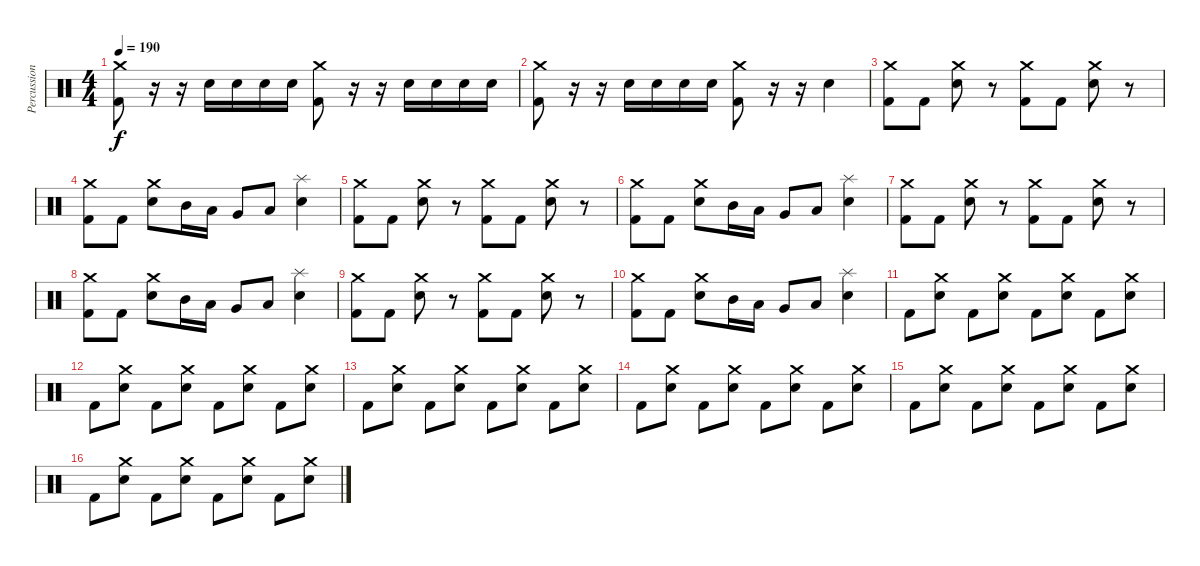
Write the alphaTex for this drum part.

\track ("Percussion" "Percussion") {instrument percussion}
\staff {score}
\articulation defaults
\ts (4 4)
\tempo 190
\clef neutral
\ks c
("Crash medium (hit)" "Kick (hit) 2").8{dy f} r.16 r.16 "Electric Snare (hit)".16 "Electric Snare (hit)".16 "Electric Snare (hit)".16 "Electric Snare (hit)".16 ("Crash medium (hit)" "Kick (hit) 2").8 r.16 r.16 "Electric Snare (hit)".16 "Electric Snare (hit)".16 "Electric Snare (hit)".16 "Electric Snare (hit)".16 |
("Crash medium (hit)" "Kick (hit) 2").8 r.16 r.16 "Electric Snare (hit)".16 "Electric Snare (hit)".16 "Electric Snare (hit)".16 "Electric Snare (hit)".16 ("Crash medium (hit)" "Kick (hit) 2").8 r.16 r.16 "Electric Snare (hit)".4 |
("Crash medium (hit)" "Kick (hit) 2").8 "Kick (hit) 2".8 ("Crash medium (hit)" "Electric Snare (hit)").8 r.8 ("Crash medium (hit)" "Kick (hit) 2").8 "Kick (hit) 2".8 ("Crash medium (hit)" "Electric Snare (hit)").8 r.8 |
("Crash medium (hit)" "Kick (hit) 2").8 "Kick (hit) 2".8 ("Crash medium (hit)" "Electric Snare (hit)").8 "Mid Tom (hit)".16 "Low Tom (hit)".16 "Very Low Tom (hit)".8 "Low Floor Tom (hit)".8 ("Splash (hit)" "Electric Snare (hit)").4 |
("Crash medium (hit)" "Kick (hit) 2").8 "Kick (hit) 2".8 ("Crash medium (hit)" "Electric Snare (hit)").8 r.8 ("Crash medium (hit)" "Kick (hit) 2").8 "Kick (hit) 2".8 ("Crash medium (hit)" "Electric Snare (hit)").8 r.8 |
("Crash medium (hit)" "Kick (hit) 2").8 "Kick (hit) 2".8 ("Crash medium (hit)" "Electric Snare (hit)").8 "Mid Tom (hit)".16 "Low Tom (hit)".16 "Very Low Tom (hit)".8 "Low Floor Tom (hit)".8 ("Splash (hit)" "Electric Snare (hit)").4 |
("Crash medium (hit)" "Kick (hit) 2").8 "Kick (hit) 2".8 ("Crash medium (hit)" "Electric Snare (hit)").8 r.8 ("Crash medium (hit)" "Kick (hit) 2").8 "Kick (hit) 2".8 ("Crash medium (hit)" "Electric Snare (hit)").8 r.8 |
("Crash medium (hit)" "Kick (hit) 2").8 "Kick (hit) 2".8 ("Crash medium (hit)" "Electric Snare (hit)").8 "Mid Tom (hit)".16 "Low Tom (hit)".16 "Very Low Tom (hit)".8 "Low Floor Tom (hit)".8 ("Splash (hit)" "Electric Snare (hit)").4 |
("Crash medium (hit)" "Kick (hit) 2").8 "Kick (hit) 2".8 ("Crash medium (hit)" "Electric Snare (hit)").8 r.8 ("Crash medium (hit)" "Kick (hit) 2").8 "Kick (hit) 2".8 ("Crash medium (hit)" "Electric Snare (hit)").8 r.8 |
("Crash medium (hit)" "Kick (hit) 2").8 "Kick (hit) 2".8 ("Crash medium (hit)" "Electric Snare (hit)").8 "Mid Tom (hit)".16 "Low Tom (hit)".16 "Very Low Tom (hit)".8 "Low Floor Tom (hit)".8 ("Splash (hit)" "Electric Snare (hit)").4 |
"Kick (hit) 2".8 ("Crash medium (hit)" "Electric Snare (hit)").8 "Kick (hit) 2".8 ("Crash medium (hit)" "Electric Snare (hit)").8 "Kick (hit) 2".8 ("Crash medium (hit)" "Electric Snare (hit)").8 "Kick (hit) 2".8 ("Crash medium (hit)" "Electric Snare (hit)").8 |
"Kick (hit) 2".8 ("Crash medium (hit)" "Electric Snare (hit)").8 "Kick (hit) 2".8 ("Crash medium (hit)" "Electric Snare (hit)").8 "Kick (hit) 2".8 ("Crash medium (hit)" "Electric Snare (hit)").8 "Kick (hit) 2".8 ("Crash medium (hit)" "Electric Snare (hit)").8 |
"Kick (hit) 2".8 ("Crash medium (hit)" "Electric Snare (hit)").8 "Kick (hit) 2".8 ("Crash medium (hit)" "Electric Snare (hit)").8 "Kick (hit) 2".8 ("Crash medium (hit)" "Electric Snare (hit)").8 "Kick (hit) 2".8 ("Crash medium (hit)" "Electric Snare (hit)").8 |
"Kick (hit) 2".8 ("Crash medium (hit)" "Electric Snare (hit)").8 "Kick (hit) 2".8 ("Crash medium (hit)" "Electric Snare (hit)").8 "Kick (hit) 2".8 ("Crash medium (hit)" "Electric Snare (hit)").8 "Kick (hit) 2".8 ("Crash medium (hit)" "Electric Snare (hit)").8 |
"Kick (hit) 2".8 ("Crash medium (hit)" "Electric Snare (hit)").8 "Kick (hit) 2".8 ("Crash medium (hit)" "Electric Snare (hit)").8 "Kick (hit) 2".8 ("Crash medium (hit)" "Electric Snare (hit)").8 "Kick (hit) 2".8 ("Crash medium (hit)" "Electric Snare (hit)").8 |
"Kick (hit) 2".8 ("Crash medium (hit)" "Electric Snare (hit)").8 "Kick (hit) 2".8 ("Crash medium (hit)" "Electric Snare (hit)").8 "Kick (hit) 2".8 ("Crash medium (hit)" "Electric Snare (hit)").8 "Kick (hit) 2".8 ("Crash medium (hit)" "Electric Snare (hit)").8
